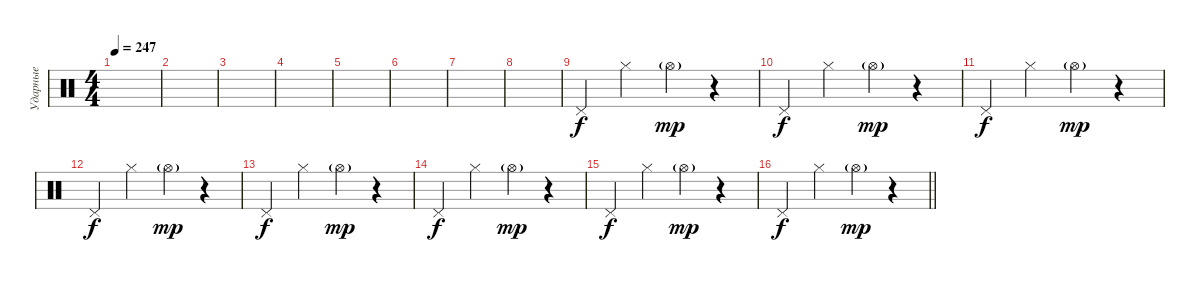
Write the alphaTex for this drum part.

\track ("Ударные" "Ударные") {instrument percussion}
\staff {score}
\articulation defaults
\ts (4 4)
\tempo 247
\clef neutral
\ks c
|
|
|
|
|
|
|
|
"Pedal Hi-Hat (hit)".4{dy f} "Hi-Hat (closed)".4 "Hi-Hat (open)"{g}.4{dy mp} r.4 |
"Pedal Hi-Hat (hit)".4{dy f} "Hi-Hat (closed)".4 "Hi-Hat (open)"{g}.4{dy mp} r.4 |
"Pedal Hi-Hat (hit)".4{dy f} "Hi-Hat (closed)".4 "Hi-Hat (open)"{g}.4{dy mp} r.4 |
"Pedal Hi-Hat (hit)".4{dy f} "Hi-Hat (closed)".4 "Hi-Hat (open)"{g}.4{dy mp} r.4 |
"Pedal Hi-Hat (hit)".4{dy f} "Hi-Hat (closed)".4 "Hi-Hat (open)"{g}.4{dy mp} r.4 |
"Pedal Hi-Hat (hit)".4{dy f} "Hi-Hat (closed)".4 "Hi-Hat (open)"{g}.4{dy mp} r.4 |
"Pedal Hi-Hat (hit)".4{dy f} "Hi-Hat (closed)".4 "Hi-Hat (open)"{g}.4{dy mp} r.4 |
\barLineRight lightlight "Pedal Hi-Hat (hit)".4{dy f} "Hi-Hat (closed)".4 "Hi-Hat (open)"{g}.4{dy mp}
r.4
